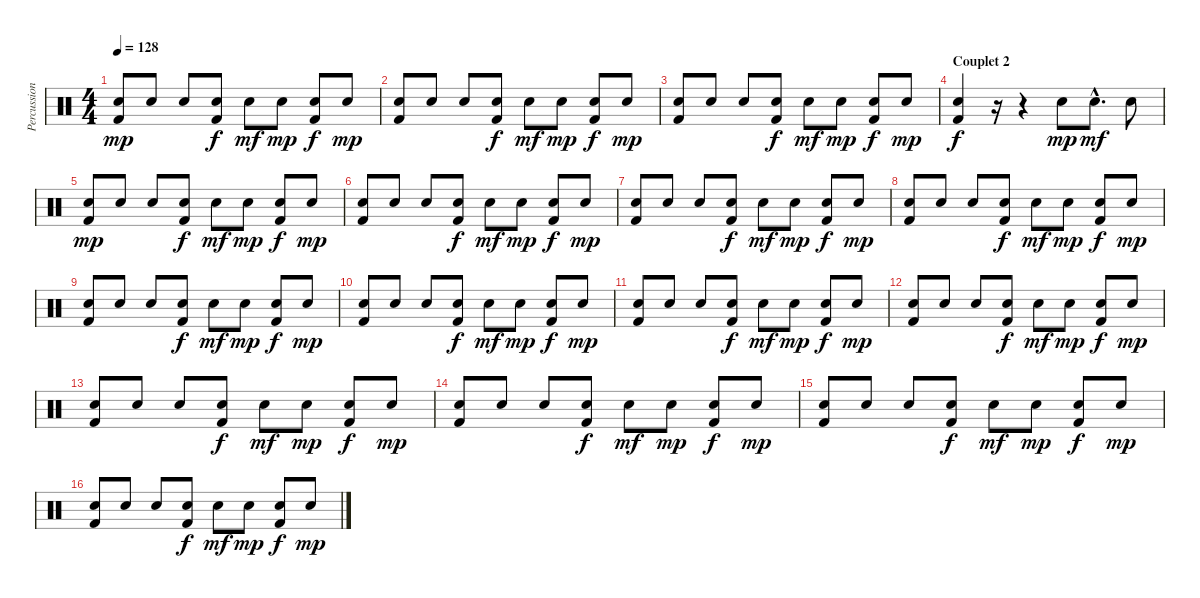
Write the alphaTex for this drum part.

\track ("Percussions" "Percussion") {instrument percussion}
\staff {score}
\articulation defaults
\ts (4 4)
\tempo 128
\clef neutral
\ks c
("Electric Snare (hit)" "Kick (hit) 2").8{dy mp} "Electric Snare (hit)".8 "Electric Snare (hit)".8 ("Electric Snare (hit)" "Kick (hit) 2").8{dy f} "Electric Snare (hit)".8{dy mf} "Electric Snare (hit)".8{dy mp} ("Electric Snare (hit)" "Kick (hit) 2").8{dy f} "Electric Snare (hit)".8{dy mp} |
("Electric Snare (hit)" "Kick (hit) 2").8 "Electric Snare (hit)".8 "Electric Snare (hit)".8 ("Electric Snare (hit)" "Kick (hit) 2").8{dy f} "Electric Snare (hit)".8{dy mf} "Electric Snare (hit)".8{dy mp} ("Electric Snare (hit)" "Kick (hit) 2").8{dy f} "Electric Snare (hit)".8{dy mp} |
("Electric Snare (hit)" "Kick (hit) 2").8 "Electric Snare (hit)".8 "Electric Snare (hit)".8 ("Electric Snare (hit)" "Kick (hit) 2").8{dy f} "Electric Snare (hit)".8{dy mf} "Electric Snare (hit)".8{dy mp} ("Electric Snare (hit)" "Kick (hit) 2").8{dy f} "Electric Snare (hit)".8{dy mp} |
\section ("" "Couplet 2")
("Electric Snare (hit)" "Kick (hit) 2").4{dy f} r.16 r.4 "Electric Snare (hit)".8{dy mp} "Electric Snare (hit)"{hac}.8{d dy mf} "Electric Snare (hit)".8 |
("Electric Snare (hit)" "Kick (hit) 2").8{dy mp} "Electric Snare (hit)".8 "Electric Snare (hit)".8 ("Electric Snare (hit)" "Kick (hit) 2").8{dy f} "Electric Snare (hit)".8{dy mf} "Electric Snare (hit)".8{dy mp} ("Electric Snare (hit)" "Kick (hit) 2").8{dy f} "Electric Snare (hit)".8{dy mp} |
("Electric Snare (hit)" "Kick (hit) 2").8 "Electric Snare (hit)".8 "Electric Snare (hit)".8 ("Electric Snare (hit)" "Kick (hit) 2").8{dy f} "Electric Snare (hit)".8{dy mf} "Electric Snare (hit)".8{dy mp} ("Electric Snare (hit)" "Kick (hit) 2").8{dy f} "Electric Snare (hit)".8{dy mp} |
("Electric Snare (hit)" "Kick (hit) 2").8 "Electric Snare (hit)".8 "Electric Snare (hit)".8 ("Electric Snare (hit)" "Kick (hit) 2").8{dy f} "Electric Snare (hit)".8{dy mf} "Electric Snare (hit)".8{dy mp} ("Electric Snare (hit)" "Kick (hit) 2").8{dy f} "Electric Snare (hit)".8{dy mp} |
("Electric Snare (hit)" "Kick (hit) 2").8 "Electric Snare (hit)".8 "Electric Snare (hit)".8 ("Electric Snare (hit)" "Kick (hit) 2").8{dy f} "Electric Snare (hit)".8{dy mf} "Electric Snare (hit)".8{dy mp} ("Electric Snare (hit)" "Kick (hit) 2").8{dy f} "Electric Snare (hit)".8{dy mp} |
("Electric Snare (hit)" "Kick (hit) 2").8 "Electric Snare (hit)".8 "Electric Snare (hit)".8 ("Electric Snare (hit)" "Kick (hit) 2").8{dy f} "Electric Snare (hit)".8{dy mf} "Electric Snare (hit)".8{dy mp} ("Electric Snare (hit)" "Kick (hit) 2").8{dy f} "Electric Snare (hit)".8{dy mp} |
("Electric Snare (hit)" "Kick (hit) 2").8 "Electric Snare (hit)".8 "Electric Snare (hit)".8 ("Electric Snare (hit)" "Kick (hit) 2").8{dy f} "Electric Snare (hit)".8{dy mf} "Electric Snare (hit)".8{dy mp} ("Electric Snare (hit)" "Kick (hit) 2").8{dy f} "Electric Snare (hit)".8{dy mp} |
("Electric Snare (hit)" "Kick (hit) 2").8 "Electric Snare (hit)".8 "Electric Snare (hit)".8 ("Electric Snare (hit)" "Kick (hit) 2").8{dy f} "Electric Snare (hit)".8{dy mf} "Electric Snare (hit)".8{dy mp} ("Electric Snare (hit)" "Kick (hit) 2").8{dy f} "Electric Snare (hit)".8{dy mp} |
("Electric Snare (hit)" "Kick (hit) 2").8 "Electric Snare (hit)".8 "Electric Snare (hit)".8 ("Electric Snare (hit)" "Kick (hit) 2").8{dy f} "Electric Snare (hit)".8{dy mf} "Electric Snare (hit)".8{dy mp} ("Electric Snare (hit)" "Kick (hit) 2").8{dy f} "Electric Snare (hit)".8{dy mp} |
("Electric Snare (hit)" "Kick (hit) 2").8 "Electric Snare (hit)".8 "Electric Snare (hit)".8 ("Electric Snare (hit)" "Kick (hit) 2").8{dy f} "Electric Snare (hit)".8{dy mf} "Electric Snare (hit)".8{dy mp} ("Electric Snare (hit)" "Kick (hit) 2").8{dy f} "Electric Snare (hit)".8{dy mp} |
("Electric Snare (hit)" "Kick (hit) 2").8 "Electric Snare (hit)".8 "Electric Snare (hit)".8 ("Electric Snare (hit)" "Kick (hit) 2").8{dy f} "Electric Snare (hit)".8{dy mf} "Electric Snare (hit)".8{dy mp} ("Electric Snare (hit)" "Kick (hit) 2").8{dy f} "Electric Snare (hit)".8{dy mp} |
("Electric Snare (hit)" "Kick (hit) 2").8 "Electric Snare (hit)".8 "Electric Snare (hit)".8 ("Electric Snare (hit)" "Kick (hit) 2").8{dy f} "Electric Snare (hit)".8{dy mf} "Electric Snare (hit)".8{dy mp} ("Electric Snare (hit)" "Kick (hit) 2").8{dy f} "Electric Snare (hit)".8{dy mp} |
("Electric Snare (hit)" "Kick (hit) 2").8 "Electric Snare (hit)".8 "Electric Snare (hit)".8 ("Electric Snare (hit)" "Kick (hit) 2").8{dy f} "Electric Snare (hit)".8{dy mf} "Electric Snare (hit)".8{dy mp} ("Electric Snare (hit)" "Kick (hit) 2").8{dy f} "Electric Snare (hit)".8{dy mp}
